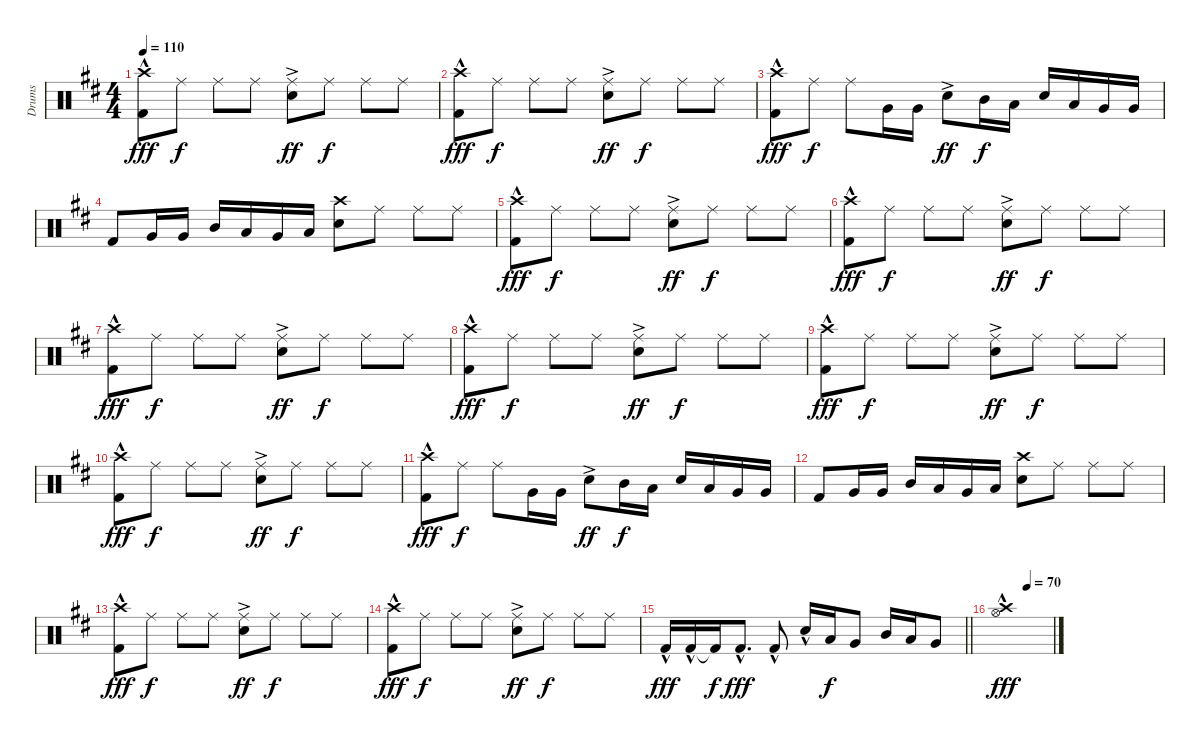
\track ("Drums" "Drums") {instrument percussion}
\staff {score}
\articulation defaults
\ts (4 4)
\tempo 110
\clef neutral
\ks d
("Crash high (hit)" "Kick (hit) 2"{hac}).8{dy fff} "Ride (middle)".8{dy f} "Ride (middle)".8 "Ride (middle)".8 ("Snare (hit) 2"{ac} "Ride (middle)").8{dy ff} "Ride (middle)".8{dy f} "Ride (middle)".8 "Ride (middle)".8 |
("Crash high (hit)" "Kick (hit) 2"{hac}).8{dy fff} "Ride (middle)".8{dy f} "Ride (middle)".8 "Ride (middle)".8 ("Snare (hit) 2"{ac} "Ride (middle)").8{dy ff} "Ride (middle)".8{dy f} "Ride (middle)".8 "Ride (middle)".8 |
("Crash high (hit)" "Kick (hit) 2"{hac}).8{dy fff} "Ride (middle)".8{dy f} "Ride (middle)".8 "Very Low Tom (hit)".16 "Very Low Tom (hit)".16 "Snare (hit) 2"{ac}.8{dy ff} "Mid Tom (hit)".16{dy f} "Low Tom (hit)".16 "Snare (hit) 2".16 "Low Tom (hit)".16 "Very Low Tom (hit)".16 "Very Low Tom (hit)".16 |
"Kick (hit) 2".8 "Very Low Tom (hit)".16 "Very Low Tom (hit)".16 "Mid Tom (hit)".16 "Low Tom (hit)".16 "Very Low Tom (hit)".16 "Low Floor Tom (hit)".16 ("Snare (hit) 2" "Crash high (hit)").8 "Ride (middle)".8 "Ride (middle)".8 "Ride (middle)".8 |
("Crash high (hit)" "Kick (hit) 2"{hac}).8{dy fff} "Ride (middle)".8{dy f} "Ride (middle)".8 "Ride (middle)".8 ("Snare (hit) 2"{ac} "Ride (middle)").8{dy ff} "Ride (middle)".8{dy f} "Ride (middle)".8 "Ride (middle)".8 |
("Crash high (hit)" "Kick (hit) 2"{hac}).8{dy fff} "Ride (middle)".8{dy f} "Ride (middle)".8 "Ride (middle)".8 ("Snare (hit) 2"{ac} "Ride (middle)").8{dy ff} "Ride (middle)".8{dy f} "Ride (middle)".8 "Ride (middle)".8 |
("Crash high (hit)" "Kick (hit) 2"{hac}).8{dy fff} "Ride (middle)".8{dy f} "Ride (middle)".8 "Ride (middle)".8 ("Snare (hit) 2"{ac} "Ride (middle)").8{dy ff} "Ride (middle)".8{dy f} "Ride (middle)".8 "Ride (middle)".8 |
("Crash high (hit)" "Kick (hit) 2"{hac}).8{dy fff} "Ride (middle)".8{dy f} "Ride (middle)".8 "Ride (middle)".8 ("Snare (hit) 2"{ac} "Ride (middle)").8{dy ff} "Ride (middle)".8{dy f} "Ride (middle)".8 "Ride (middle)".8 |
("Crash high (hit)" "Kick (hit) 2"{hac}).8{dy fff} "Ride (middle)".8{dy f} "Ride (middle)".8 "Ride (middle)".8 ("Snare (hit) 2"{ac} "Ride (middle)").8{dy ff} "Ride (middle)".8{dy f} "Ride (middle)".8 "Ride (middle)".8 |
("Crash high (hit)" "Kick (hit) 2"{hac}).8{dy fff} "Ride (middle)".8{dy f} "Ride (middle)".8 "Ride (middle)".8 ("Snare (hit) 2"{ac} "Ride (middle)").8{dy ff} "Ride (middle)".8{dy f} "Ride (middle)".8 "Ride (middle)".8 |
("Crash high (hit)" "Kick (hit) 2"{hac}).8{dy fff} "Ride (middle)".8{dy f} "Ride (middle)".8 "Very Low Tom (hit)".16 "Very Low Tom (hit)".16 "Snare (hit) 2"{ac}.8{dy ff} "Mid Tom (hit)".16{dy f} "Low Tom (hit)".16 "Snare (hit) 2".16 "Low Tom (hit)".16 "Very Low Tom (hit)".16 "Very Low Tom (hit)".16 |
"Kick (hit) 2".8 "Very Low Tom (hit)".16 "Very Low Tom (hit)".16 "Mid Tom (hit)".16 "Low Tom (hit)".16 "Very Low Tom (hit)".16 "Low Floor Tom (hit)".16 ("Snare (hit) 2" "Crash high (hit)").8 "Ride (middle)".8 "Ride (middle)".8 "Ride (middle)".8 |
("Crash high (hit)" "Kick (hit) 2"{hac}).8{dy fff} "Ride (middle)".8{dy f} "Ride (middle)".8 "Ride (middle)".8 ("Snare (hit) 2"{ac} "Ride (middle)").8{dy ff} "Ride (middle)".8{dy f} "Ride (middle)".8 "Ride (middle)".8 |
("Crash high (hit)" "Kick (hit) 2"{hac}).8{dy fff} "Ride (middle)".8{dy f} "Ride (middle)".8 "Ride (middle)".8 ("Snare (hit) 2"{ac} "Ride (middle)").8{dy ff} "Ride (middle)".8{dy f} "Ride (middle)".8 "Ride (middle)".8 |
\barLineRight lightlight "Kick (hit) 2"{hac}.16{dy fff} "Kick (hit) 2"{hac}.16 "Kick (hit) 2"{t}.16{dy f} "Kick (hit) 2"{hac}.8{d dy fff} "Kick (hit) 2"{hac}.8 "Snare (hit) 2"{hac}.16 "Low Tom (hit)".16{dy f} "Very Low Tom (hit)".8 "Mid Tom (hit)".16 "Low Tom (hit)".16 "Very Low Tom (hit)".8
|
\tempo (70 0.5)
("Crash high (hit)"{hac} "Hi-Hat (open)").1{dy fff}
